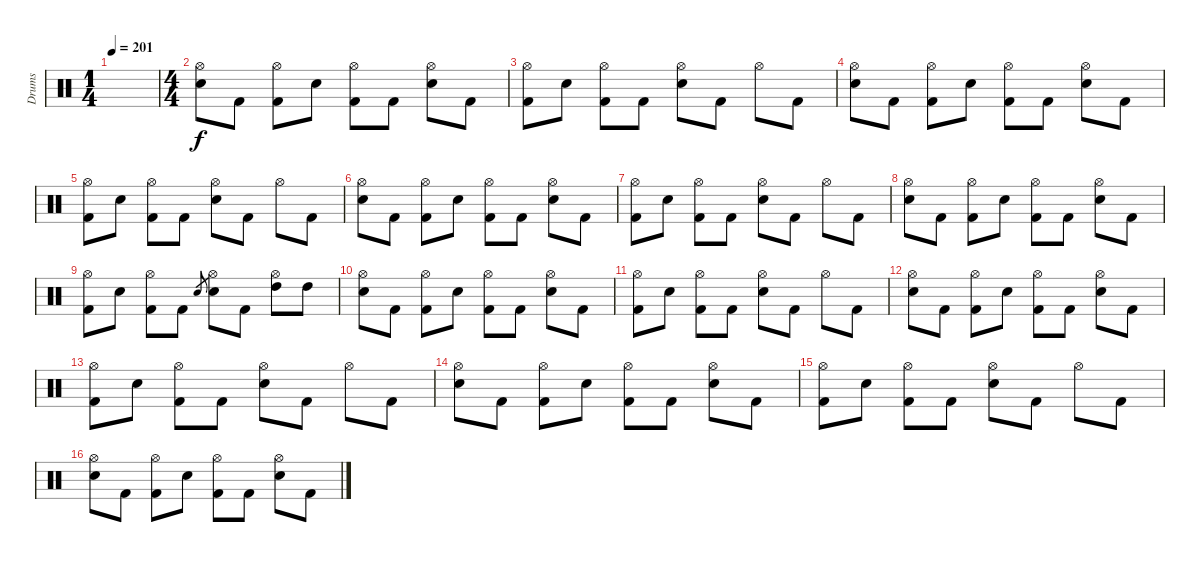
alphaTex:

\track ("Drums" "Drums") {instrument percussion}
\staff {score}
\articulation defaults
\ts (1 4)
\tempo 201
\clef neutral
\ks c
|
\ts (4 4)
("Hi-Hat (open)" "Snare (hit) 2").8{volume 12} "Kick (hit) 2".8 ("Hi-Hat (open)" "Kick (hit) 2").8 "Snare (hit) 2".8 ("Hi-Hat (open)" "Kick (hit) 2").8 "Kick (hit) 2".8 ("Hi-Hat (open)" "Snare (hit) 2").8 "Kick (hit) 2".8 |
("Hi-Hat (open)" "Kick (hit) 2").8 "Snare (hit) 2".8 ("Hi-Hat (open)" "Kick (hit) 2").8 "Kick (hit) 2".8 ("Hi-Hat (open)" "Snare (hit) 2").8 "Kick (hit) 2".8 "Hi-Hat (open)".8 "Kick (hit) 2".8 |
("Hi-Hat (open)" "Snare (hit) 2").8 "Kick (hit) 2".8 ("Hi-Hat (open)" "Kick (hit) 2").8 "Snare (hit) 2".8 ("Hi-Hat (open)" "Kick (hit) 2").8 "Kick (hit) 2".8 ("Hi-Hat (open)" "Snare (hit) 2").8 "Kick (hit) 2".8 |
("Hi-Hat (open)" "Kick (hit) 2").8 "Snare (hit) 2".8 ("Hi-Hat (open)" "Kick (hit) 2").8 "Kick (hit) 2".8 ("Hi-Hat (open)" "Snare (hit) 2").8 "Kick (hit) 2".8 "Hi-Hat (open)".8 "Kick (hit) 2".8 |
("Hi-Hat (open)" "Snare (hit) 2").8 "Kick (hit) 2".8 ("Hi-Hat (open)" "Kick (hit) 2").8 "Snare (hit) 2".8 ("Hi-Hat (open)" "Kick (hit) 2").8 "Kick (hit) 2".8 ("Hi-Hat (open)" "Snare (hit) 2").8 "Kick (hit) 2".8 |
("Hi-Hat (open)" "Kick (hit) 2").8 "Snare (hit) 2".8 ("Hi-Hat (open)" "Kick (hit) 2").8 "Kick (hit) 2".8 ("Hi-Hat (open)" "Snare (hit) 2").8 "Kick (hit) 2".8 "Hi-Hat (open)".8 "Kick (hit) 2".8 |
("Hi-Hat (open)" "Snare (hit) 2").8 "Kick (hit) 2".8 ("Hi-Hat (open)" "Kick (hit) 2").8 "Snare (hit) 2".8 ("Hi-Hat (open)" "Kick (hit) 2").8 "Kick (hit) 2".8 ("Hi-Hat (open)" "Snare (hit) 2").8 "Kick (hit) 2".8 |
("Hi-Hat (open)" "Kick (hit) 2").8 "Snare (hit) 2".8 ("Hi-Hat (open)" "Kick (hit) 2").8 "Kick (hit) 2".8 "Snare (hit) 2".8{gr} ("Hi-Hat (open)" "Snare (hit) 2").8 "Kick (hit) 2".8 ("Hi-Hat (open)" "High Tom (hit)").8 "High Tom (hit)".8 |
("Hi-Hat (open)" "Snare (hit) 2").8 "Kick (hit) 2".8 ("Hi-Hat (open)" "Kick (hit) 2").8 "Snare (hit) 2".8 ("Hi-Hat (open)" "Kick (hit) 2").8 "Kick (hit) 2".8 ("Hi-Hat (open)" "Snare (hit) 2").8 "Kick (hit) 2".8 |
("Hi-Hat (open)" "Kick (hit) 2").8 "Snare (hit) 2".8 ("Hi-Hat (open)" "Kick (hit) 2").8 "Kick (hit) 2".8 ("Hi-Hat (open)" "Snare (hit) 2").8 "Kick (hit) 2".8 "Hi-Hat (open)".8 "Kick (hit) 2".8 |
("Hi-Hat (open)" "Snare (hit) 2").8 "Kick (hit) 2".8 ("Hi-Hat (open)" "Kick (hit) 2").8 "Snare (hit) 2".8 ("Hi-Hat (open)" "Kick (hit) 2").8 "Kick (hit) 2".8 ("Hi-Hat (open)" "Snare (hit) 2").8 "Kick (hit) 2".8 |
("Hi-Hat (open)" "Kick (hit) 2").8 "Snare (hit) 2".8 ("Hi-Hat (open)" "Kick (hit) 2").8 "Kick (hit) 2".8 ("Hi-Hat (open)" "Snare (hit) 2").8 "Kick (hit) 2".8 "Hi-Hat (open)".8 "Kick (hit) 2".8 |
("Hi-Hat (open)" "Snare (hit) 2").8 "Kick (hit) 2".8 ("Hi-Hat (open)" "Kick (hit) 2").8 "Snare (hit) 2".8 ("Hi-Hat (open)" "Kick (hit) 2").8 "Kick (hit) 2".8 ("Hi-Hat (open)" "Snare (hit) 2").8 "Kick (hit) 2".8 |
("Hi-Hat (open)" "Kick (hit) 2").8 "Snare (hit) 2".8 ("Hi-Hat (open)" "Kick (hit) 2").8 "Kick (hit) 2".8 ("Hi-Hat (open)" "Snare (hit) 2").8 "Kick (hit) 2".8 "Hi-Hat (open)".8 "Kick (hit) 2".8 |
("Hi-Hat (open)" "Snare (hit) 2").8 "Kick (hit) 2".8 ("Hi-Hat (open)" "Kick (hit) 2").8 "Snare (hit) 2".8 ("Hi-Hat (open)" "Kick (hit) 2").8 "Kick (hit) 2".8 ("Hi-Hat (open)" "Snare (hit) 2").8 "Kick (hit) 2".8
